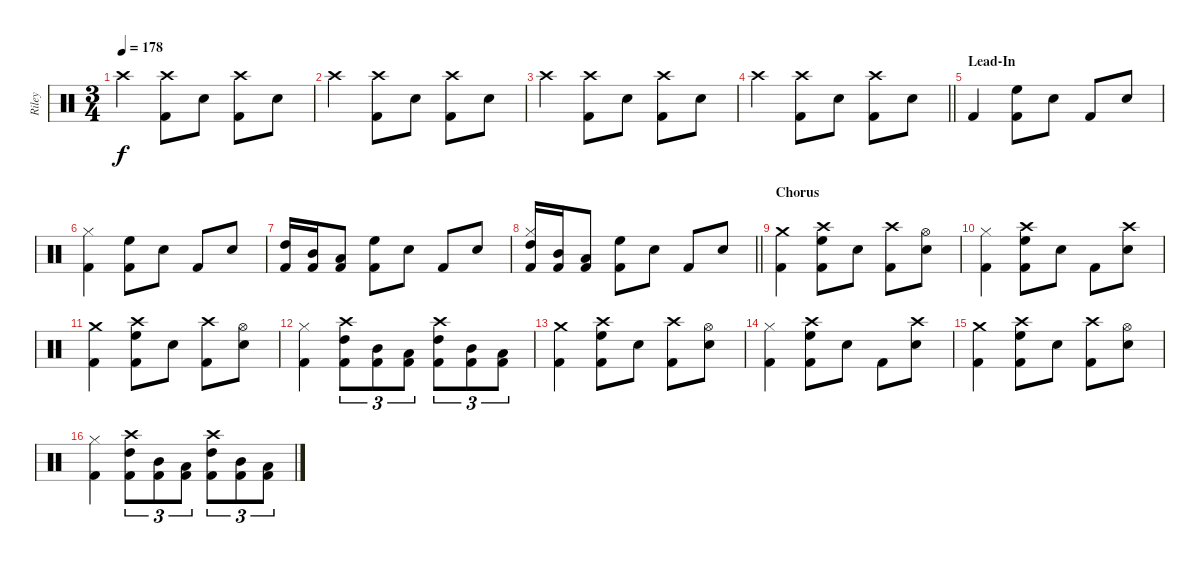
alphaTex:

\track ("Riley" "Riley") {instrument percussion}
\staff {score}
\articulation defaults
\ts (3 4)
\tempo 178
\clef neutral
\ks c "Crash high (hit)".4{dy f}
("Crash high (hit)" "Kick (hit) 2").8 "Snare (hit) 2".8 ("Crash high (hit)" "Kick (hit) 2").8 "Snare (hit) 2".8 |
"Crash high (hit)".4 ("Crash high (hit)" "Kick (hit) 2").8 "Snare (hit) 2".8 ("Crash high (hit)" "Kick (hit) 2").8 "Snare (hit) 2".8 |
"Crash high (hit)".4 ("Crash high (hit)" "Kick (hit) 2").8 "Snare (hit) 2".8 ("Crash high (hit)" "Kick (hit) 2").8 "Snare (hit) 2".8 |
\barLineRight lightlight "Crash high (hit)".4
("Crash high (hit)" "Kick (hit) 2").8 "Snare (hit) 2".8 ("Crash high (hit)" "Kick (hit) 2").8 "Snare (hit) 2".8 |
\section ("" "Lead-In")
"Kick (hit) 2".4 ("High Floor Tom (hit)" "Kick (hit) 2").8 "Snare (hit) 2".8 "Kick (hit) 2".8 "Snare (hit) 2".8 |
("Hi-Hat (closed)" "Kick (hit) 2").4 ("High Floor Tom (hit)" "Kick (hit) 2").8 "Snare (hit) 2".8 "Kick (hit) 2".8 "Snare (hit) 2".8 |
("High Tom (hit)" "Kick (hit) 2").16 ("Mid Tom (hit)" "Kick (hit) 2").16 ("Low Tom (hit)" "Kick (hit) 2").8 ("High Floor Tom (hit)" "Kick (hit) 2").8 "Snare (hit) 2".8 "Kick (hit) 2".8 "Snare (hit) 2".8 |
\barLineRight lightlight
("Hi-Hat (closed)" "High Tom (hit)" "Kick (hit) 2").16 ("Mid Tom (hit)" "Kick (hit) 2").16 ("Low Tom (hit)" "Kick (hit) 2").8 ("High Floor Tom (hit)" "Kick (hit) 2").8 "Snare (hit) 2".8 "Kick (hit) 2".8 "Snare (hit) 2".8 |
\section ("" "Chorus")
("Crash medium (hit)" "Kick (hit) 2").4 ("Crash high (hit)" "High Floor Tom (hit)" "Kick (hit) 2").8 "Snare (hit) 2".8 ("Crash high (hit)" "Kick (hit) 2").8 ("Hi-Hat (open)" "Snare (hit) 2").8 |
("Hi-Hat (closed)" "Kick (hit) 2").4 ("Crash high (hit)" "High Floor Tom (hit)" "Kick (hit) 2").8 "Snare (hit) 2".8 "Kick (hit) 2".8 ("Crash high (hit)" "Snare (hit) 2").8 |
("Crash medium (hit)" "Kick (hit) 2").4 ("Crash high (hit)" "High Floor Tom (hit)" "Kick (hit) 2").8 "Snare (hit) 2".8 ("Crash high (hit)" "Kick (hit) 2").8 ("Hi-Hat (open)" "Snare (hit) 2").8 |
("Hi-Hat (closed)" "Kick (hit) 2").4 ("Crash high (hit)" "High Tom (hit)" "Kick (hit) 2").8{tu (3 2)} ("Mid Tom (hit)" "Kick (hit) 2").8{tu (3 2)} ("Low Tom (hit)" "Kick (hit) 2").8{tu (3 2)} ("Crash high (hit)" "High Tom (hit)" "Kick (hit) 2").8{tu (3 2)} ("Mid Tom (hit)" "Kick (hit) 2").8{tu (3 2)} ("Low Tom (hit)" "Kick (hit) 2").8{tu (3 2)} |
("Crash medium (hit)" "Kick (hit) 2").4 ("Crash high (hit)" "High Floor Tom (hit)" "Kick (hit) 2").8 "Snare (hit) 2".8 ("Crash high (hit)" "Kick (hit) 2").8 ("Hi-Hat (open)" "Snare (hit) 2").8 |
("Hi-Hat (closed)" "Kick (hit) 2").4 ("Crash high (hit)" "High Floor Tom (hit)" "Kick (hit) 2").8 "Snare (hit) 2".8 "Kick (hit) 2".8 ("Crash high (hit)" "Snare (hit) 2").8 |
("Crash medium (hit)" "Kick (hit) 2").4 ("Crash high (hit)" "High Floor Tom (hit)" "Kick (hit) 2").8 "Snare (hit) 2".8 ("Crash high (hit)" "Kick (hit) 2").8 ("Hi-Hat (open)" "Snare (hit) 2").8 |
("Hi-Hat (closed)" "Kick (hit) 2").4 ("Crash high (hit)" "High Tom (hit)" "Kick (hit) 2").8{tu (3 2)} ("Mid Tom (hit)" "Kick (hit) 2").8{tu (3 2)} ("Low Tom (hit)" "Kick (hit) 2").8{tu (3 2)} ("Crash high (hit)" "High Tom (hit)" "Kick (hit) 2").8{tu (3 2)} ("Mid Tom (hit)" "Kick (hit) 2").8{tu (3 2)} ("Low Tom (hit)" "Kick (hit) 2").8{tu (3 2)}
